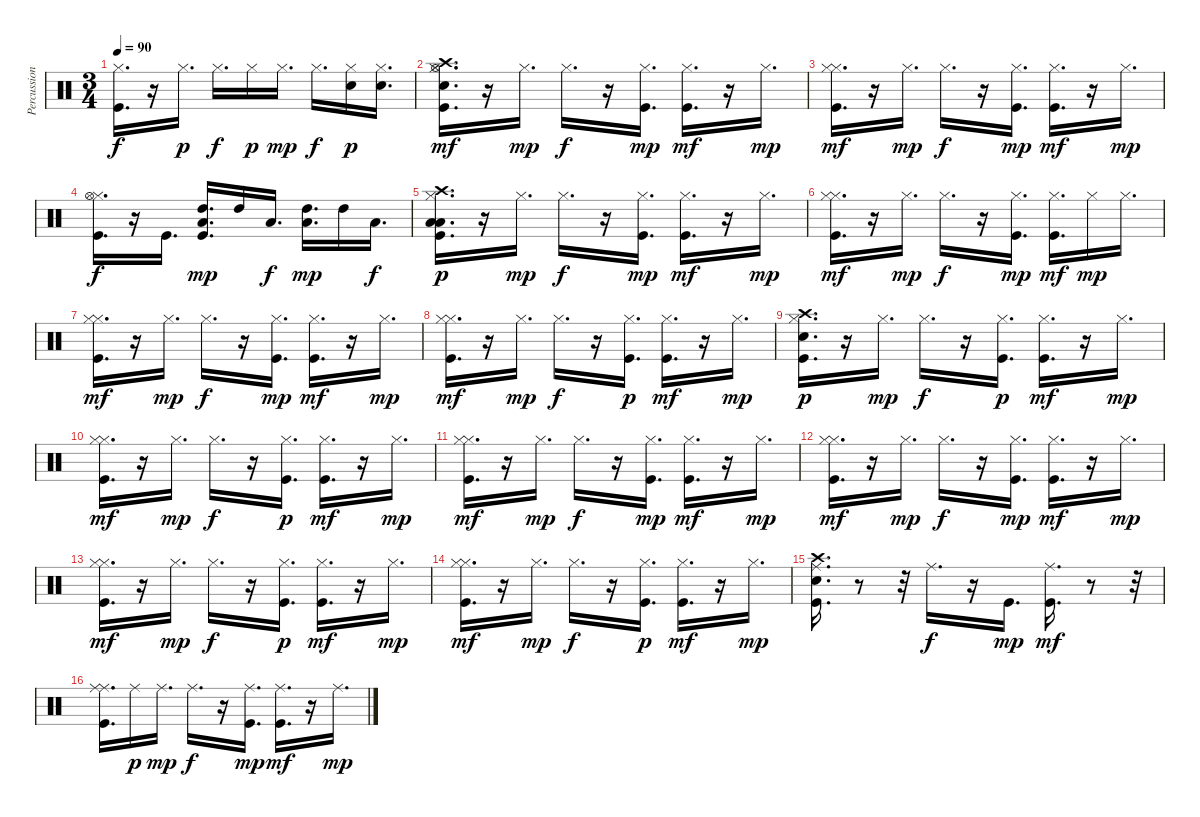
\track ("Percussion" "Percussion") {instrument percussion}
\staff {score}
\articulation defaults
\ts (3 4)
\tempo 90
\clef neutral
\ks c
("Hi-Hat (closed)" "Kick (hit)").16{d dy f} r.16 "Hi-Hat (closed)".16{d dy p} "Hi-Hat (closed)".16{d dy f} "Hi-Hat (closed)".16{dy p} "Hi-Hat (closed)".16{d dy mp} "Hi-Hat (closed)".16{d dy f} ("Hi-Hat (closed)" "Snare (hit) 2").16{dy p} ("Hi-Hat (closed)" "Snare (hit) 2").16{d} |
("Crash high (hit)" "Snare (hit) 2" "Hi-Hat (open)" "Kick (hit)" "Hi-Hat (closed)").16{d dy mf} r.16 "Hi-Hat (closed)".16{d dy mp} "Hi-Hat (closed)".16{d dy f} r.16 ("Hi-Hat (closed)" "Kick (hit)").16{d dy mp} ("Hi-Hat (closed)" "Kick (hit)").16{d dy mf} r.16 "Hi-Hat (closed)".16{d dy mp} |
("Hi-Hat (closed)" "Kick (hit)" "Hi-Hat (closed)").16{d dy mf} r.16 "Hi-Hat (closed)".16{d dy mp} "Hi-Hat (closed)".16{d dy f} r.16 ("Kick (hit)" "Hi-Hat (closed)").16{d dy mp} ("Kick (hit)" "Hi-Hat (closed)").16{d dy mf} r.16 "Hi-Hat (closed)".16{d dy mp} |
("Hi-Hat (closed)" "Kick (hit)" "Hi-Hat (open)").16{d dy f} r.16 "Kick (hit)".16{d} ("Kick (hit)" "Low Tom (hit)" "High Tom (hit)").16{d dy mp} "High Tom (hit)".16 "Low Tom (hit)".16{d dy f} ("Low Tom (hit)" "High Tom (hit)").16{d dy mp} "High Tom (hit)".16 "Low Tom (hit)".16{d dy f} |
("Low Floor Tom (hit)" "Low Tom (hit)" "Kick (hit)" "Hi-Hat (closed)" "Crash high (hit)").16{d dy p} r.16 "Hi-Hat (closed)".16{d dy mp} "Hi-Hat (closed)".16{d dy f} r.16 ("Kick (hit)" "Hi-Hat (closed)").16{d dy mp} ("Kick (hit)" "Hi-Hat (closed)").16{d dy mf} r.16 "Hi-Hat (closed)".16{d dy mp} |
("Hi-Hat (closed)" "Kick (hit)" "Hi-Hat (closed)").16{d dy mf} r.16 "Hi-Hat (closed)".16{d dy mp} "Hi-Hat (closed)".16{d dy f} r.16 ("Kick (hit)" "Hi-Hat (closed)").16{d dy mp} ("Kick (hit)" "Hi-Hat (closed)").16{d dy mf} "Hi-Hat (closed)".16{dy mp} "Hi-Hat (closed)".16{d} |
("Hi-Hat (closed)" "Kick (hit)" "Hi-Hat (closed)").16{d dy mf} r.16 "Hi-Hat (closed)".16{d dy mp} "Hi-Hat (closed)".16{d dy f} r.16 ("Kick (hit)" "Hi-Hat (closed)").16{d dy mp} ("Kick (hit)" "Hi-Hat (closed)").16{d dy mf} r.16 "Hi-Hat (closed)".16{d dy mp} |
("Hi-Hat (closed)" "Kick (hit)" "Hi-Hat (closed)").16{d dy mf} r.16 "Hi-Hat (closed)".16{d dy mp} "Hi-Hat (closed)".16{d dy f} r.16 ("Kick (hit)" "Hi-Hat (closed)").16{d dy p} ("Kick (hit)" "Hi-Hat (closed)").16{d dy mf} r.16 "Hi-Hat (closed)".16{d dy mp} |
("Snare (hit) 2" "Kick (hit)" "Hi-Hat (closed)" "Crash high (hit)").16{d dy p} r.16 "Hi-Hat (closed)".16{d dy mp} "Hi-Hat (closed)".16{d dy f} r.16 ("Kick (hit)" "Hi-Hat (closed)").16{d dy p} ("Kick (hit)" "Hi-Hat (closed)").16{d dy mf} r.16 "Hi-Hat (closed)".16{d dy mp} |
("Hi-Hat (closed)" "Kick (hit)" "Hi-Hat (closed)").16{d dy mf} r.16 "Hi-Hat (closed)".16{d dy mp} "Hi-Hat (closed)".16{d dy f} r.16 ("Kick (hit)" "Hi-Hat (closed)").16{d dy p} ("Kick (hit)" "Hi-Hat (closed)").16{d dy mf} r.16 "Hi-Hat (closed)".16{d dy mp} |
("Hi-Hat (closed)" "Kick (hit)" "Hi-Hat (closed)").16{d dy mf} r.16 "Hi-Hat (closed)".16{d dy mp} "Hi-Hat (closed)".16{d dy f} r.16 ("Kick (hit)" "Hi-Hat (closed)").16{d dy mp} ("Kick (hit)" "Hi-Hat (closed)").16{d dy mf} r.16 "Hi-Hat (closed)".16{d dy mp} |
("Hi-Hat (closed)" "Kick (hit)" "Hi-Hat (closed)").16{d dy mf} r.16 "Hi-Hat (closed)".16{d dy mp} "Hi-Hat (closed)".16{d dy f} r.16 ("Kick (hit)" "Hi-Hat (closed)").16{d dy mp} ("Kick (hit)" "Hi-Hat (closed)").16{d dy mf} r.16 "Hi-Hat (closed)".16{d dy mp} |
("Hi-Hat (closed)" "Kick (hit)" "Hi-Hat (closed)").16{d dy mf} r.16 "Hi-Hat (closed)".16{d dy mp} "Hi-Hat (closed)".16{d dy f} r.16 ("Kick (hit)" "Hi-Hat (closed)").16{d dy p} ("Kick (hit)" "Hi-Hat (closed)").16{d dy mf} r.16 "Hi-Hat (closed)".16{d dy mp} |
("Hi-Hat (closed)" "Kick (hit)" "Hi-Hat (closed)").16{d dy mf} r.16 "Hi-Hat (closed)".16{d dy mp} "Hi-Hat (closed)".16{d dy f} r.16 ("Kick (hit)" "Hi-Hat (closed)").16{d dy p} ("Kick (hit)" "Hi-Hat (closed)").16{d dy mf} r.16 "Hi-Hat (closed)".16{d dy mp} |
("Snare (hit) 2" "Kick (hit)" "Ride (middle)" "Crash high (hit)").16{d} r.8 r.32 "Ride (middle)".16{d dy f} r.16 "Kick (hit)".16{d dy mp} ("Kick (hit)" "Ride (middle)").16{d dy mf} r.8 r.32 |
("Ride (middle)" "Kick (hit)" "Ride (middle)").16{d} "Ride (middle)".16{dy p} "Ride (middle)".16{d dy mp} "Ride (middle)".16{d dy f} r.16 ("Kick (hit)" "Ride (middle)").16{d dy mp} ("Kick (hit)" "Ride (middle)").16{d dy mf} r.16 "Ride (middle)".16{d dy mp}
